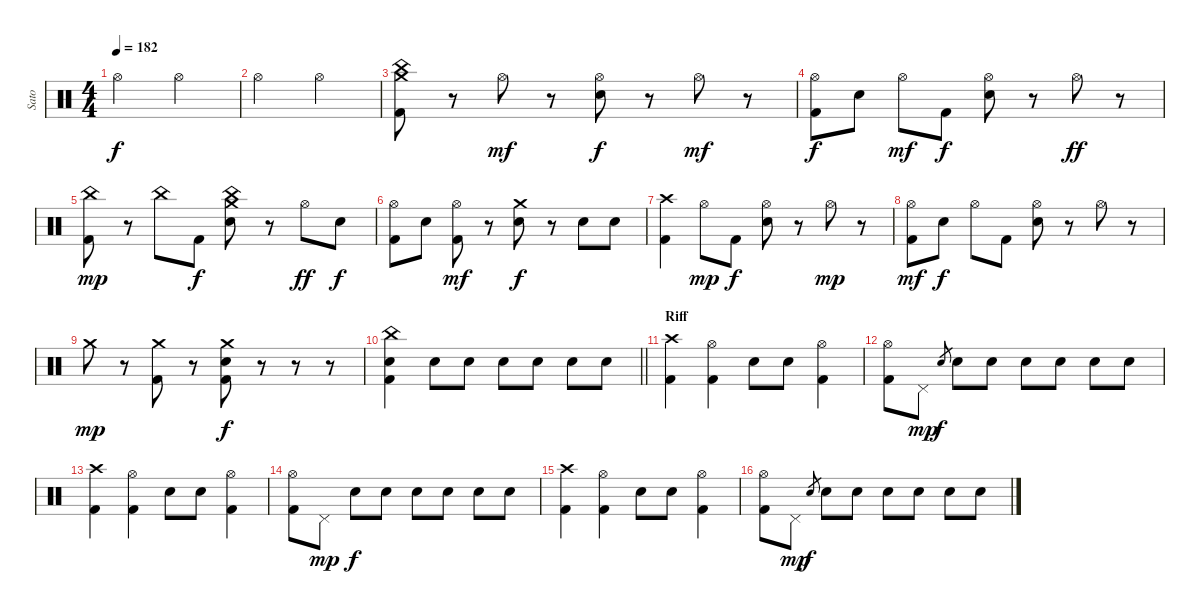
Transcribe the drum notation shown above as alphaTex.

\track ("Sato" "Sato") {instrument percussion}
\staff {score}
\articulation defaults
\ts (4 4)
\tempo 182
\clef neutral
\ks c "Hi-Hat (open)".2{dy f} "Hi-Hat (open)".2
|
"Hi-Hat (open)".2 "Hi-Hat (open)".2 |
("Crash medium (hit)" "China (hit)" "Kick (hit) 2").8 r.8 "Hi-Hat (open)".8{dy mf} r.8 ("Hi-Hat (open)" "Electric Snare (hit)").8{dy f} r.8 "Hi-Hat (open)".8{dy mf} r.8 |
("Hi-Hat (open)" "Kick (hit) 2").8{dy f} "Electric Snare (hit)".8 "Hi-Hat (open)".8{dy mf} "Kick (hit) 2".8{dy f} ("Hi-Hat (open)" "Electric Snare (hit)").8 r.8 "Hi-Hat (open)".8{dy ff} r.8 |
("China (hit)" "Kick (hit) 2").8{dy mp} r.8 "China (hit)".8 "Kick (hit) 2".8{dy f} ("China (hit)" "Crash medium (hit)" "Electric Snare (hit)").8 r.8 "Hi-Hat (open)".8{dy ff} "Electric Snare (hit)".8{dy f} |
("Hi-Hat (open)" "Kick (hit) 2").8 "Electric Snare (hit)".8 ("Hi-Hat (open)" "Kick (hit) 2").8{dy mf} r.8 ("Crash medium (hit)" "Electric Snare (hit)").8{dy f} r.8 "Electric Snare (hit)".8 "Electric Snare (hit)".8 |
("Crash high (hit)" "Kick (hit) 2").4 "Hi-Hat (open)".8{dy mp} "Kick (hit) 2".8{dy f} ("Hi-Hat (open)" "Electric Snare (hit)").8 r.8 "Hi-Hat (open)".8{dy mp} r.8 |
("Hi-Hat (open)" "Kick (hit) 2").8{dy mf} "Electric Snare (hit)".8{dy f} "Hi-Hat (open)".8 "Kick (hit) 2".8 ("Hi-Hat (open)" "Electric Snare (hit)").8 r.8 "Hi-Hat (open)".8 r.8 |
"Crash medium (hit)".8{dy mp} r.8 ("Crash medium (hit)" "Kick (hit) 2").8 r.8 ("Crash medium (hit)" "Electric Snare (hit)" "Kick (hit) 2").8{dy f} r.8 r.8 r.8 |
\barLineRight lightlight
("China (hit)" "Electric Snare (hit)" "Kick (hit) 2").4 "Electric Snare (hit)".8 "Electric Snare (hit)".8 "Electric Snare (hit)".8 "Electric Snare (hit)".8 "Electric Snare (hit)".8 "Electric Snare (hit)".8 |
\section ("" "Riff")
("Crash high (hit)" "Kick (hit) 2").4 ("Hi-Hat (open)" "Kick (hit) 2").4 "Electric Snare (hit)".8 "Electric Snare (hit)".8 ("Hi-Hat (open)" "Kick (hit) 2").4 |
("Hi-Hat (open)" "Kick (hit) 2").8 "Pedal Hi-Hat (hit)".8{dy mp} "Electric Snare (hit)".8{gr dy f} "Electric Snare (hit)".8 "Electric Snare (hit)".8 "Electric Snare (hit)".8 "Electric Snare (hit)".8 "Electric Snare (hit)".8 "Electric Snare (hit)".8 |
("Crash high (hit)" "Kick (hit) 2").4 ("Hi-Hat (open)" "Kick (hit) 2").4 "Electric Snare (hit)".8 "Electric Snare (hit)".8 ("Hi-Hat (open)" "Kick (hit) 2").4 |
("Hi-Hat (open)" "Kick (hit) 2").8 "Pedal Hi-Hat (hit)".8{dy mp} "Electric Snare (hit)".8{dy f} "Electric Snare (hit)".8 "Electric Snare (hit)".8 "Electric Snare (hit)".8 "Electric Snare (hit)".8 "Electric Snare (hit)".8 |
("Crash high (hit)" "Kick (hit) 2").4 ("Hi-Hat (open)" "Kick (hit) 2").4 "Electric Snare (hit)".8 "Electric Snare (hit)".8 ("Hi-Hat (open)" "Kick (hit) 2").4 |
("Hi-Hat (open)" "Kick (hit) 2").8 "Pedal Hi-Hat (hit)".8{dy mp} "Electric Snare (hit)".8{gr dy f} "Electric Snare (hit)".8 "Electric Snare (hit)".8 "Electric Snare (hit)".8 "Electric Snare (hit)".8 "Electric Snare (hit)".8 "Electric Snare (hit)".8
